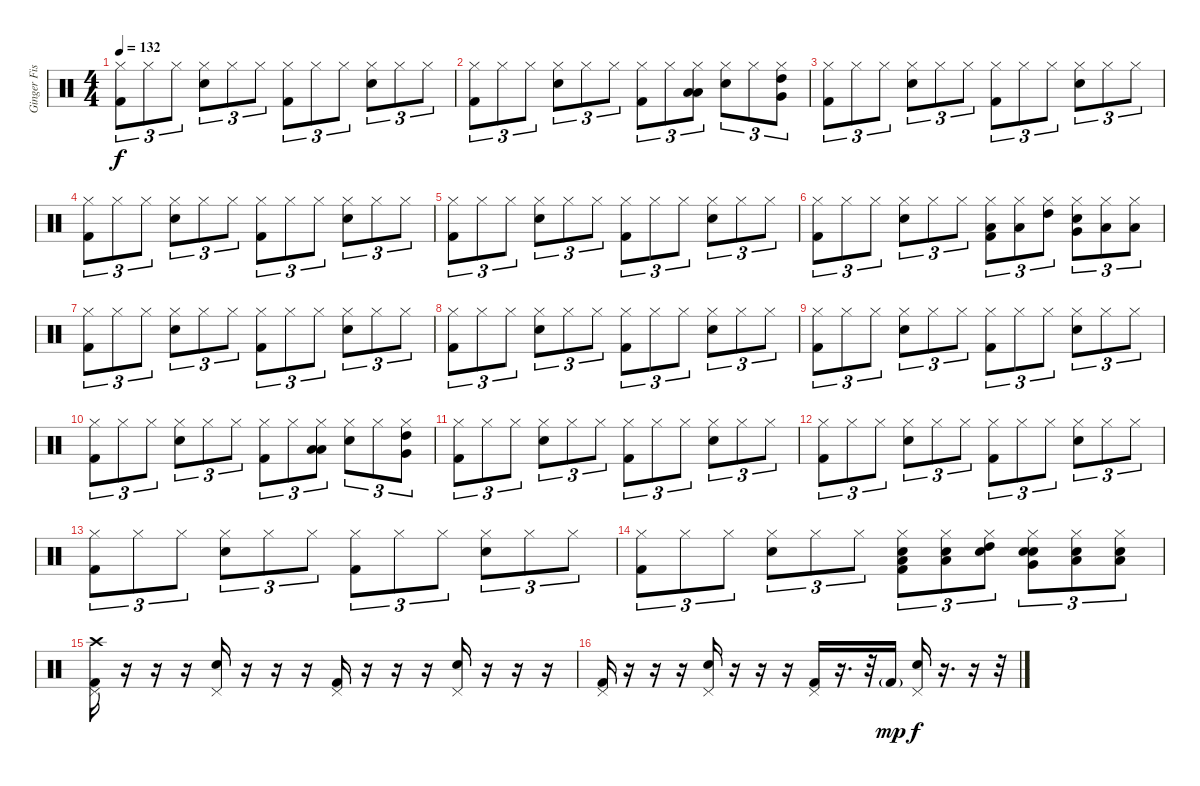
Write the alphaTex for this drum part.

\track ("Ginger Fish" "Ginger Fis") {instrument percussion}
\staff {score}
\articulation defaults
\ts (4 4)
\tempo 132
\clef neutral
\ks c
("Hi-Hat (closed)" "Kick (hit) 2").8{tu (3 2) dy f} "Hi-Hat (closed)".8{tu (3 2)} "Hi-Hat (closed)".8{tu (3 2)} ("Hi-Hat (closed)" "Snare (hit) 2").8{tu (3 2)} "Hi-Hat (closed)".8{tu (3 2)} "Hi-Hat (closed)".8{tu (3 2)} ("Hi-Hat (closed)" "Kick (hit) 2").8{tu (3 2)} "Hi-Hat (closed)".8{tu (3 2)} "Hi-Hat (closed)".8{tu (3 2)} ("Hi-Hat (closed)" "Snare (hit) 2").8{tu (3 2)} "Hi-Hat (closed)".8{tu (3 2)} "Hi-Hat (closed)".8{tu (3 2)} |
("Hi-Hat (closed)" "Kick (hit) 2").8{tu (3 2)} "Hi-Hat (closed)".8{tu (3 2)} "Hi-Hat (closed)".8{tu (3 2)} ("Hi-Hat (closed)" "Snare (hit) 2").8{tu (3 2)} "Hi-Hat (closed)".8{tu (3 2)} "Hi-Hat (closed)".8{tu (3 2)} ("Hi-Hat (closed)" "Kick (hit) 2").8{tu (3 2)} "Hi-Hat (closed)".8{tu (3 2)} ("Hi-Hat (closed)" "Low Floor Tom (hit)" "Low Tom (hit)").8{tu (3 2)} ("Hi-Hat (closed)" "Snare (hit) 2").8{tu (3 2)} "Hi-Hat (closed)".8{tu (3 2)} ("Hi-Hat (closed)" "Very Low Tom (hit)" "High Tom (hit)").8{tu (3 2)} |
("Hi-Hat (closed)" "Kick (hit) 2").8{tu (3 2)} "Hi-Hat (closed)".8{tu (3 2)} "Hi-Hat (closed)".8{tu (3 2)} ("Hi-Hat (closed)" "Snare (hit) 2").8{tu (3 2)} "Hi-Hat (closed)".8{tu (3 2)} "Hi-Hat (closed)".8{tu (3 2)} ("Hi-Hat (closed)" "Kick (hit) 2").8{tu (3 2)} "Hi-Hat (closed)".8{tu (3 2)} "Hi-Hat (closed)".8{tu (3 2)} ("Hi-Hat (closed)" "Snare (hit) 2").8{tu (3 2)} "Hi-Hat (closed)".8{tu (3 2)} "Hi-Hat (closed)".8{tu (3 2)} |
("Hi-Hat (closed)" "Kick (hit) 2").8{tu (3 2)} "Hi-Hat (closed)".8{tu (3 2)} "Hi-Hat (closed)".8{tu (3 2)} ("Hi-Hat (closed)" "Snare (hit) 2").8{tu (3 2)} "Hi-Hat (closed)".8{tu (3 2)} "Hi-Hat (closed)".8{tu (3 2)} ("Hi-Hat (closed)" "Kick (hit) 2").8{tu (3 2)} "Hi-Hat (closed)".8{tu (3 2)} "Hi-Hat (closed)".8{tu (3 2)} ("Hi-Hat (closed)" "Snare (hit) 2").8{tu (3 2)} "Hi-Hat (closed)".8{tu (3 2)} "Hi-Hat (closed)".8{tu (3 2)} |
("Hi-Hat (closed)" "Kick (hit) 2").8{tu (3 2)} "Hi-Hat (closed)".8{tu (3 2)} "Hi-Hat (closed)".8{tu (3 2)} ("Hi-Hat (closed)" "Snare (hit) 2").8{tu (3 2)} "Hi-Hat (closed)".8{tu (3 2)} "Hi-Hat (closed)".8{tu (3 2)} ("Hi-Hat (closed)" "Kick (hit) 2").8{tu (3 2)} "Hi-Hat (closed)".8{tu (3 2)} "Hi-Hat (closed)".8{tu (3 2)} ("Hi-Hat (closed)" "Snare (hit) 2").8{tu (3 2)} "Hi-Hat (closed)".8{tu (3 2)} "Hi-Hat (closed)".8{tu (3 2)} |
("Hi-Hat (closed)" "Kick (hit) 2").8{tu (3 2)} "Hi-Hat (closed)".8{tu (3 2)} "Hi-Hat (closed)".8{tu (3 2)} ("Hi-Hat (closed)" "Snare (hit) 2").8{tu (3 2)} "Hi-Hat (closed)".8{tu (3 2)} "Hi-Hat (closed)".8{tu (3 2)} ("Hi-Hat (closed)" "Low Tom (hit)" "Kick (hit) 2").8{tu (3 2)} ("Hi-Hat (closed)" "Low Tom (hit)").8{tu (3 2)} ("Hi-Hat (closed)" "High Tom (hit)").8{tu (3 2)} ("Hi-Hat (closed)" "Very Low Tom (hit)" "Snare (hit) 2").8{tu (3 2)} ("Hi-Hat (closed)" "Low Floor Tom (hit)").8{tu (3 2)} ("Hi-Hat (closed)" "Low Floor Tom (hit)").8{tu (3 2)} |
("Hi-Hat (closed)" "Kick (hit) 2").8{tu (3 2)} "Hi-Hat (closed)".8{tu (3 2)} "Hi-Hat (closed)".8{tu (3 2)} ("Hi-Hat (closed)" "Snare (hit) 2").8{tu (3 2)} "Hi-Hat (closed)".8{tu (3 2)} "Hi-Hat (closed)".8{tu (3 2)} ("Hi-Hat (closed)" "Kick (hit) 2").8{tu (3 2)} "Hi-Hat (closed)".8{tu (3 2)} "Hi-Hat (closed)".8{tu (3 2)} ("Hi-Hat (closed)" "Snare (hit) 2").8{tu (3 2)} "Hi-Hat (closed)".8{tu (3 2)} "Hi-Hat (closed)".8{tu (3 2)} |
("Hi-Hat (closed)" "Kick (hit) 2").8{tu (3 2)} "Hi-Hat (closed)".8{tu (3 2)} "Hi-Hat (closed)".8{tu (3 2)} ("Hi-Hat (closed)" "Snare (hit) 2").8{tu (3 2)} "Hi-Hat (closed)".8{tu (3 2)} "Hi-Hat (closed)".8{tu (3 2)} ("Hi-Hat (closed)" "Kick (hit) 2").8{tu (3 2)} "Hi-Hat (closed)".8{tu (3 2)} "Hi-Hat (closed)".8{tu (3 2)} ("Hi-Hat (closed)" "Snare (hit) 2").8{tu (3 2)} "Hi-Hat (closed)".8{tu (3 2)} "Hi-Hat (closed)".8{tu (3 2)} |
("Hi-Hat (closed)" "Kick (hit) 2").8{tu (3 2)} "Hi-Hat (closed)".8{tu (3 2)} "Hi-Hat (closed)".8{tu (3 2)} ("Hi-Hat (closed)" "Snare (hit) 2").8{tu (3 2)} "Hi-Hat (closed)".8{tu (3 2)} "Hi-Hat (closed)".8{tu (3 2)} ("Hi-Hat (closed)" "Kick (hit) 2").8{tu (3 2)} "Hi-Hat (closed)".8{tu (3 2)} "Hi-Hat (closed)".8{tu (3 2)} ("Hi-Hat (closed)" "Snare (hit) 2").8{tu (3 2)} "Hi-Hat (closed)".8{tu (3 2)} "Hi-Hat (closed)".8{tu (3 2)} |
("Hi-Hat (closed)" "Kick (hit) 2").8{tu (3 2)} "Hi-Hat (closed)".8{tu (3 2)} "Hi-Hat (closed)".8{tu (3 2)} ("Hi-Hat (closed)" "Snare (hit) 2").8{tu (3 2)} "Hi-Hat (closed)".8{tu (3 2)} "Hi-Hat (closed)".8{tu (3 2)} ("Hi-Hat (closed)" "Kick (hit) 2").8{tu (3 2)} "Hi-Hat (closed)".8{tu (3 2)} ("Hi-Hat (closed)" "Low Floor Tom (hit)" "Low Tom (hit)").8{tu (3 2)} ("Hi-Hat (closed)" "Snare (hit) 2").8{tu (3 2)} "Hi-Hat (closed)".8{tu (3 2)} ("Hi-Hat (closed)" "Very Low Tom (hit)" "High Tom (hit)").8{tu (3 2)} |
("Hi-Hat (closed)" "Kick (hit) 2").8{tu (3 2)} "Hi-Hat (closed)".8{tu (3 2)} "Hi-Hat (closed)".8{tu (3 2)} ("Hi-Hat (closed)" "Snare (hit) 2").8{tu (3 2)} "Hi-Hat (closed)".8{tu (3 2)} "Hi-Hat (closed)".8{tu (3 2)} ("Hi-Hat (closed)" "Kick (hit) 2").8{tu (3 2)} "Hi-Hat (closed)".8{tu (3 2)} "Hi-Hat (closed)".8{tu (3 2)} ("Hi-Hat (closed)" "Snare (hit) 2").8{tu (3 2)} "Hi-Hat (closed)".8{tu (3 2)} "Hi-Hat (closed)".8{tu (3 2)} |
("Hi-Hat (closed)" "Kick (hit) 2").8{tu (3 2)} "Hi-Hat (closed)".8{tu (3 2)} "Hi-Hat (closed)".8{tu (3 2)} ("Hi-Hat (closed)" "Snare (hit) 2").8{tu (3 2)} "Hi-Hat (closed)".8{tu (3 2)} "Hi-Hat (closed)".8{tu (3 2)} ("Hi-Hat (closed)" "Kick (hit) 2").8{tu (3 2)} "Hi-Hat (closed)".8{tu (3 2)} "Hi-Hat (closed)".8{tu (3 2)} ("Hi-Hat (closed)" "Snare (hit) 2").8{tu (3 2)} "Hi-Hat (closed)".8{tu (3 2)} "Hi-Hat (closed)".8{tu (3 2)} |
("Hi-Hat (closed)" "Kick (hit) 2").8{tu (3 2)} "Hi-Hat (closed)".8{tu (3 2)} "Hi-Hat (closed)".8{tu (3 2)} ("Hi-Hat (closed)" "Snare (hit) 2").8{tu (3 2)} "Hi-Hat (closed)".8{tu (3 2)} "Hi-Hat (closed)".8{tu (3 2)} ("Hi-Hat (closed)" "Kick (hit) 2").8{tu (3 2)} "Hi-Hat (closed)".8{tu (3 2)} "Hi-Hat (closed)".8{tu (3 2)} ("Hi-Hat (closed)" "Snare (hit) 2").8{tu (3 2)} "Hi-Hat (closed)".8{tu (3 2)} "Hi-Hat (closed)".8{tu (3 2)} |
("Hi-Hat (closed)" "Kick (hit) 2").8{tu (3 2)} "Hi-Hat (closed)".8{tu (3 2)} "Hi-Hat (closed)".8{tu (3 2)} ("Hi-Hat (closed)" "Snare (hit) 2").8{tu (3 2)} "Hi-Hat (closed)".8{tu (3 2)} "Hi-Hat (closed)".8{tu (3 2)} ("Hi-Hat (closed)" "Low Tom (hit)" "Electric Snare (hit)" "Kick (hit) 2").8{tu (3 2)} ("Hi-Hat (closed)" "Low Tom (hit)" "Electric Snare (hit)").8{tu (3 2)} ("Hi-Hat (closed)" "High Tom (hit)" "Electric Snare (hit)").8{tu (3 2)} ("Hi-Hat (closed)" "Very Low Tom (hit)" "Electric Snare (hit)" "Snare (hit) 2").8{tu (3 2)} ("Hi-Hat (closed)" "Low Floor Tom (hit)" "Electric Snare (hit)").8{tu (3 2)} ("Hi-Hat (closed)" "Low Floor Tom (hit)" "Electric Snare (hit)").8{tu (3 2)} |
("Pedal Hi-Hat (hit)" "Crash high (hit)" "Kick (hit) 2").16 r.16 r.16 r.16 ("Pedal Hi-Hat (hit)" "Electric Snare (hit)").16 r.16 r.16 r.16 ("Pedal Hi-Hat (hit)" "Kick (hit) 2").16 r.16 r.16 r.16 ("Pedal Hi-Hat (hit)" "Electric Snare (hit)").16 r.16 r.16 r.16 |
("Pedal Hi-Hat (hit)" "Kick (hit) 2").16 r.16 r.16 r.16 ("Pedal Hi-Hat (hit)" "Electric Snare (hit)").16 r.16 r.16 r.16 ("Pedal Hi-Hat (hit)" "Kick (hit) 2").16 r.16{d} r.32 "Kick (hit) 2"{g}.16{dy mp} ("Pedal Hi-Hat (hit)" "Electric Snare (hit)").16{dy f} r.16{d} r.16 r.32
